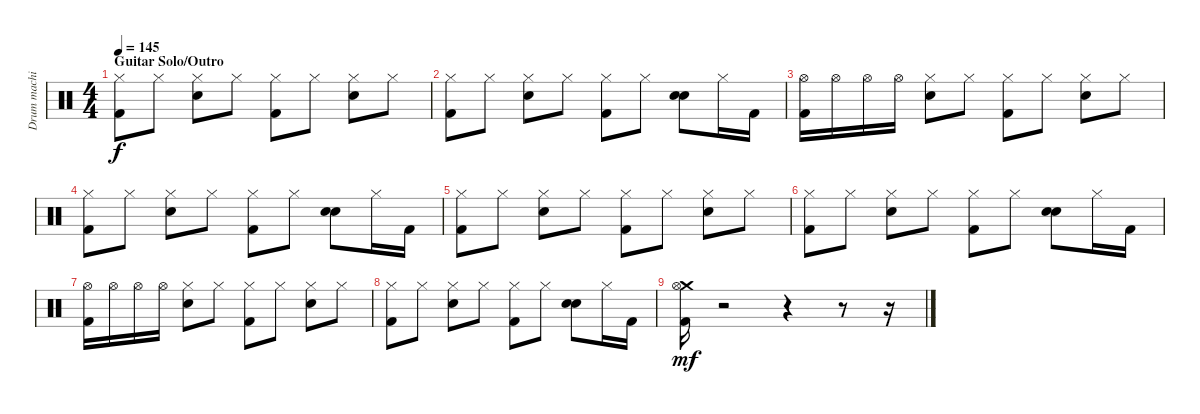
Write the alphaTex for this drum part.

\track ("Drum machine" "Drum machi") {instrument percussion}
\staff {score}
\articulation defaults
\ts (4 4)
\section ("" "Guitar Solo/Outro")
\tempo 145
\clef neutral
\ks c
("Hi-Hat (closed)" "Kick (hit) 2").8{dy f} "Hi-Hat (closed)".8 ("Hi-Hat (closed)" "Electric Snare (hit)").8 "Hi-Hat (closed)".8 ("Hi-Hat (closed)" "Kick (hit) 2").8 "Hi-Hat (closed)".8 ("Hi-Hat (closed)" "Electric Snare (hit)").8 "Hi-Hat (closed)".8 |
("Hi-Hat (closed)" "Kick (hit) 2").8 "Hi-Hat (closed)".8 ("Hi-Hat (closed)" "Electric Snare (hit)").8 "Hi-Hat (closed)".8 ("Hi-Hat (closed)" "Kick (hit) 2").8 "Hi-Hat (closed)".8 ("Snare (hit) 2" "Electric Snare (hit)").8 "Hi-Hat (closed)".16 "Kick (hit) 2".16 |
("Hi-Hat (open)" "Kick (hit) 2").16 "Hi-Hat (open)".16 "Hi-Hat (open)".16 "Hi-Hat (open)".16 ("Hi-Hat (closed)" "Electric Snare (hit)").8 "Hi-Hat (closed)".8 ("Hi-Hat (closed)" "Kick (hit) 2").8 "Hi-Hat (closed)".8 ("Hi-Hat (closed)" "Electric Snare (hit)").8 "Hi-Hat (closed)".8 |
("Hi-Hat (closed)" "Kick (hit) 2").8 "Hi-Hat (closed)".8 ("Hi-Hat (closed)" "Electric Snare (hit)").8 "Hi-Hat (closed)".8 ("Hi-Hat (closed)" "Kick (hit) 2").8 "Hi-Hat (closed)".8 ("Snare (hit) 2" "Electric Snare (hit)").8 "Hi-Hat (closed)".16 "Kick (hit) 2".16 |
("Hi-Hat (closed)" "Kick (hit) 2").8 "Hi-Hat (closed)".8 ("Hi-Hat (closed)" "Electric Snare (hit)").8 "Hi-Hat (closed)".8 ("Hi-Hat (closed)" "Kick (hit) 2").8 "Hi-Hat (closed)".8 ("Hi-Hat (closed)" "Electric Snare (hit)").8 "Hi-Hat (closed)".8 |
("Hi-Hat (closed)" "Kick (hit) 2").8 "Hi-Hat (closed)".8 ("Hi-Hat (closed)" "Electric Snare (hit)").8 "Hi-Hat (closed)".8 ("Hi-Hat (closed)" "Kick (hit) 2").8 "Hi-Hat (closed)".8 ("Snare (hit) 2" "Electric Snare (hit)").8 "Hi-Hat (closed)".16 "Kick (hit) 2".16 |
("Hi-Hat (open)" "Kick (hit) 2").16 "Hi-Hat (open)".16 "Hi-Hat (open)".16 "Hi-Hat (open)".16 ("Hi-Hat (closed)" "Electric Snare (hit)").8 "Hi-Hat (closed)".8 ("Hi-Hat (closed)" "Kick (hit) 2").8 "Hi-Hat (closed)".8 ("Hi-Hat (closed)" "Electric Snare (hit)").8 "Hi-Hat (closed)".8 |
("Hi-Hat (closed)" "Kick (hit) 2").8 "Hi-Hat (closed)".8 ("Hi-Hat (closed)" "Electric Snare (hit)").8 "Hi-Hat (closed)".8 ("Hi-Hat (closed)" "Kick (hit) 2").8 "Hi-Hat (closed)".8 ("Snare (hit) 2" "Electric Snare (hit)").8 "Hi-Hat (closed)".16 "Kick (hit) 2".16 |
("Crash medium (hit)" "Hi-Hat (open)" "Kick (hit) 2").16{dy mf} r.2 r.4 r.8 r.16
